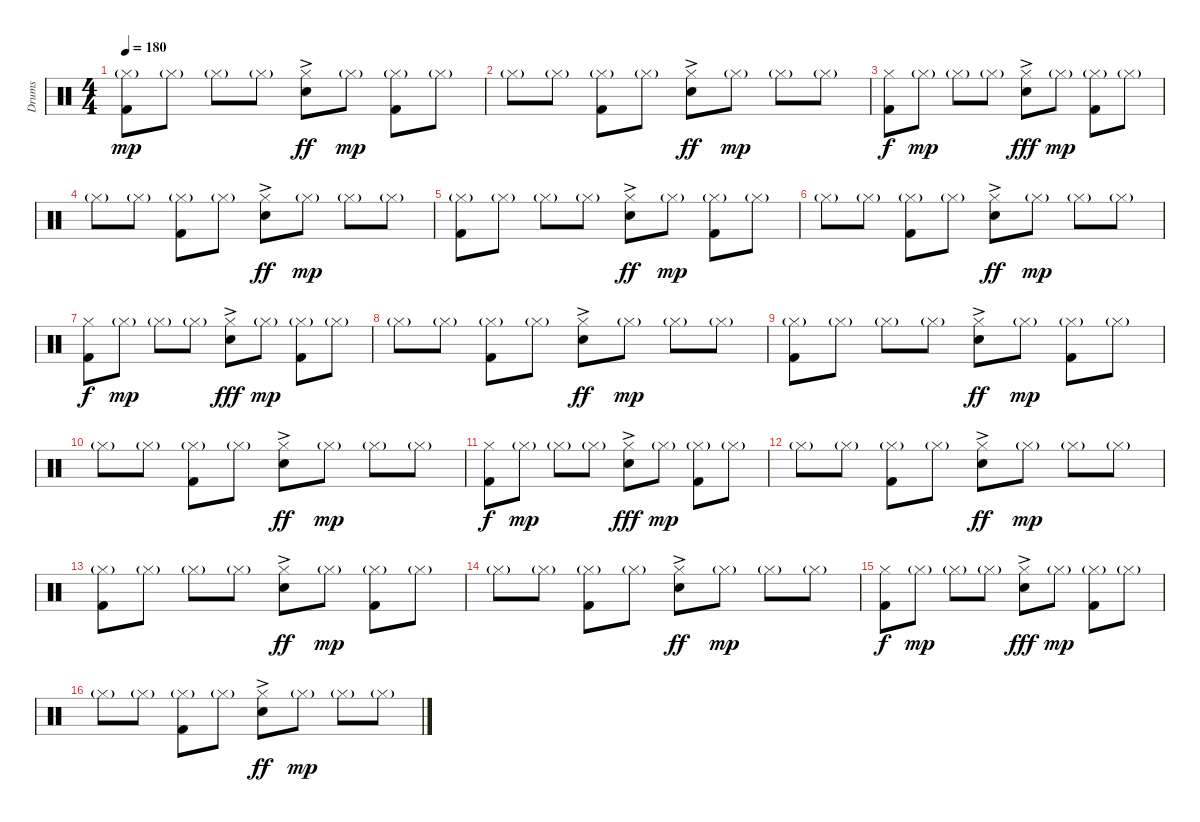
\track ("Drums" "Drums") {instrument percussion}
\staff {score}
\articulation defaults
\ts (4 4)
\tempo 180
\clef neutral
\ks c
("Hi-Hat (closed)"{g} "Kick (hit) 2").8{dy mp} "Hi-Hat (closed)"{g}.8 "Hi-Hat (closed)"{g}.8 "Hi-Hat (closed)"{g}.8 ("Hi-Hat (closed)"{ac} "Snare (hit) 2"{ac}).8{dy ff} "Hi-Hat (closed)"{g}.8{dy mp} ("Hi-Hat (closed)"{g} "Kick (hit) 2").8 "Hi-Hat (closed)"{g}.8 |
"Hi-Hat (closed)"{g}.8 "Hi-Hat (closed)"{g}.8 ("Hi-Hat (closed)"{g} "Kick (hit) 2").8 "Hi-Hat (closed)"{g}.8 ("Hi-Hat (closed)"{ac} "Snare (hit) 2"{ac}).8{dy ff} "Hi-Hat (closed)"{g}.8{dy mp} "Hi-Hat (closed)"{g}.8 "Hi-Hat (closed)"{g}.8 |
("Hi-Hat (closed)" "Kick (hit) 2").8{dy f} "Hi-Hat (closed)"{g}.8{dy mp} "Hi-Hat (closed)"{g}.8 "Hi-Hat (closed)"{g}.8 ("Hi-Hat (closed)"{ac} "Snare (hit) 2"{ac}).8{dy fff} "Hi-Hat (closed)"{g}.8{dy mp} ("Hi-Hat (closed)"{g} "Kick (hit) 2").8 "Hi-Hat (closed)"{g}.8 |
"Hi-Hat (closed)"{g}.8 "Hi-Hat (closed)"{g}.8 ("Hi-Hat (closed)"{g} "Kick (hit) 2").8 "Hi-Hat (closed)"{g}.8 ("Hi-Hat (closed)"{ac} "Snare (hit) 2"{ac}).8{dy ff} "Hi-Hat (closed)"{g}.8{dy mp} "Hi-Hat (closed)"{g}.8 "Hi-Hat (closed)"{g}.8 |
("Hi-Hat (closed)"{g} "Kick (hit) 2").8 "Hi-Hat (closed)"{g}.8 "Hi-Hat (closed)"{g}.8 "Hi-Hat (closed)"{g}.8 ("Hi-Hat (closed)"{ac} "Snare (hit) 2"{ac}).8{dy ff} "Hi-Hat (closed)"{g}.8{dy mp} ("Hi-Hat (closed)"{g} "Kick (hit) 2").8 "Hi-Hat (closed)"{g}.8 |
"Hi-Hat (closed)"{g}.8 "Hi-Hat (closed)"{g}.8 ("Hi-Hat (closed)"{g} "Kick (hit) 2").8 "Hi-Hat (closed)"{g}.8 ("Hi-Hat (closed)"{ac} "Snare (hit) 2"{ac}).8{dy ff} "Hi-Hat (closed)"{g}.8{dy mp} "Hi-Hat (closed)"{g}.8 "Hi-Hat (closed)"{g}.8 |
("Hi-Hat (closed)" "Kick (hit) 2").8{dy f} "Hi-Hat (closed)"{g}.8{dy mp} "Hi-Hat (closed)"{g}.8 "Hi-Hat (closed)"{g}.8 ("Hi-Hat (closed)"{ac} "Snare (hit) 2"{ac}).8{dy fff} "Hi-Hat (closed)"{g}.8{dy mp} ("Hi-Hat (closed)"{g} "Kick (hit) 2").8 "Hi-Hat (closed)"{g}.8 |
"Hi-Hat (closed)"{g}.8 "Hi-Hat (closed)"{g}.8 ("Hi-Hat (closed)"{g} "Kick (hit) 2").8 "Hi-Hat (closed)"{g}.8 ("Hi-Hat (closed)"{ac} "Snare (hit) 2"{ac}).8{dy ff} "Hi-Hat (closed)"{g}.8{dy mp} "Hi-Hat (closed)"{g}.8 "Hi-Hat (closed)"{g}.8 |
("Hi-Hat (closed)"{g} "Kick (hit) 2").8 "Hi-Hat (closed)"{g}.8 "Hi-Hat (closed)"{g}.8 "Hi-Hat (closed)"{g}.8 ("Hi-Hat (closed)"{ac} "Snare (hit) 2"{ac}).8{dy ff} "Hi-Hat (closed)"{g}.8{dy mp} ("Hi-Hat (closed)"{g} "Kick (hit) 2").8 "Hi-Hat (closed)"{g}.8 |
"Hi-Hat (closed)"{g}.8 "Hi-Hat (closed)"{g}.8 ("Hi-Hat (closed)"{g} "Kick (hit) 2").8 "Hi-Hat (closed)"{g}.8 ("Hi-Hat (closed)"{ac} "Snare (hit) 2"{ac}).8{dy ff} "Hi-Hat (closed)"{g}.8{dy mp} "Hi-Hat (closed)"{g}.8 "Hi-Hat (closed)"{g}.8 |
("Hi-Hat (closed)" "Kick (hit) 2").8{dy f} "Hi-Hat (closed)"{g}.8{dy mp} "Hi-Hat (closed)"{g}.8 "Hi-Hat (closed)"{g}.8 ("Hi-Hat (closed)"{ac} "Snare (hit) 2"{ac}).8{dy fff} "Hi-Hat (closed)"{g}.8{dy mp} ("Hi-Hat (closed)"{g} "Kick (hit) 2").8 "Hi-Hat (closed)"{g}.8 |
"Hi-Hat (closed)"{g}.8 "Hi-Hat (closed)"{g}.8 ("Hi-Hat (closed)"{g} "Kick (hit) 2").8 "Hi-Hat (closed)"{g}.8 ("Hi-Hat (closed)"{ac} "Snare (hit) 2"{ac}).8{dy ff} "Hi-Hat (closed)"{g}.8{dy mp} "Hi-Hat (closed)"{g}.8 "Hi-Hat (closed)"{g}.8 |
("Hi-Hat (closed)"{g} "Kick (hit) 2").8 "Hi-Hat (closed)"{g}.8 "Hi-Hat (closed)"{g}.8 "Hi-Hat (closed)"{g}.8 ("Hi-Hat (closed)"{ac} "Snare (hit) 2"{ac}).8{dy ff} "Hi-Hat (closed)"{g}.8{dy mp} ("Hi-Hat (closed)"{g} "Kick (hit) 2").8 "Hi-Hat (closed)"{g}.8 |
"Hi-Hat (closed)"{g}.8 "Hi-Hat (closed)"{g}.8 ("Hi-Hat (closed)"{g} "Kick (hit) 2").8 "Hi-Hat (closed)"{g}.8 ("Hi-Hat (closed)"{ac} "Snare (hit) 2"{ac}).8{dy ff} "Hi-Hat (closed)"{g}.8{dy mp} "Hi-Hat (closed)"{g}.8 "Hi-Hat (closed)"{g}.8 |
("Hi-Hat (closed)" "Kick (hit) 2").8{dy f} "Hi-Hat (closed)"{g}.8{dy mp} "Hi-Hat (closed)"{g}.8 "Hi-Hat (closed)"{g}.8 ("Hi-Hat (closed)"{ac} "Snare (hit) 2"{ac}).8{dy fff} "Hi-Hat (closed)"{g}.8{dy mp} ("Hi-Hat (closed)"{g} "Kick (hit) 2").8 "Hi-Hat (closed)"{g}.8 |
"Hi-Hat (closed)"{g}.8 "Hi-Hat (closed)"{g}.8 ("Hi-Hat (closed)"{g} "Kick (hit) 2").8 "Hi-Hat (closed)"{g}.8 ("Hi-Hat (closed)"{ac} "Snare (hit) 2"{ac}).8{dy ff} "Hi-Hat (closed)"{g}.8{dy mp} "Hi-Hat (closed)"{g}.8 "Hi-Hat (closed)"{g}.8
